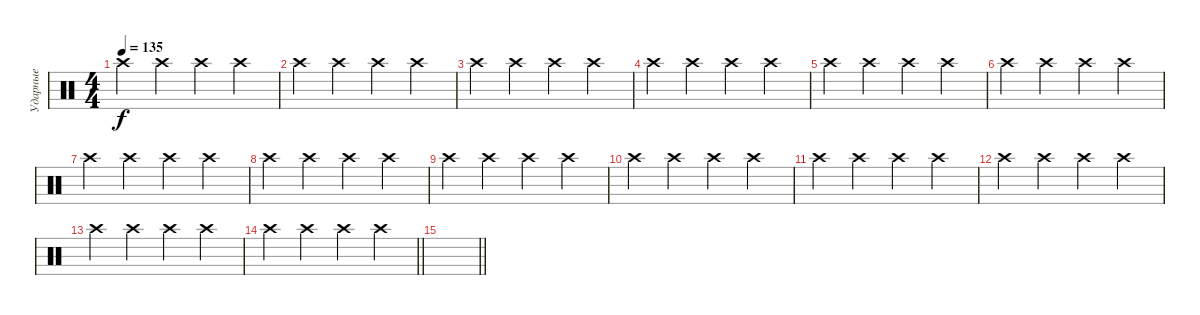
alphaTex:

\track ("Ударные" "Ударные") {instrument percussion}
\staff {score}
\articulation defaults
\ts (4 4)
\tempo 135
\clef neutral
\ks c "Crash high (hit)".4{dy f} "Crash high (hit)".4 "Crash high (hit)".4 "Crash high (hit)".4
|
"Crash high (hit)".4 "Crash high (hit)".4 "Crash high (hit)".4 "Crash high (hit)".4 |
"Crash high (hit)".4 "Crash high (hit)".4 "Crash high (hit)".4 "Crash high (hit)".4 |
"Crash high (hit)".4 "Crash high (hit)".4 "Crash high (hit)".4 "Crash high (hit)".4 |
"Crash high (hit)".4 "Crash high (hit)".4 "Crash high (hit)".4 "Crash high (hit)".4 |
"Crash high (hit)".4 "Crash high (hit)".4 "Crash high (hit)".4 "Crash high (hit)".4 |
"Crash high (hit)".4 "Crash high (hit)".4 "Crash high (hit)".4 "Crash high (hit)".4 |
"Crash high (hit)".4 "Crash high (hit)".4 "Crash high (hit)".4 "Crash high (hit)".4 |
"Crash high (hit)".4 "Crash high (hit)".4 "Crash high (hit)".4 "Crash high (hit)".4 |
"Crash high (hit)".4 "Crash high (hit)".4 "Crash high (hit)".4 "Crash high (hit)".4 |
"Crash high (hit)".4 "Crash high (hit)".4 "Crash high (hit)".4 "Crash high (hit)".4 |
"Crash high (hit)".4 "Crash high (hit)".4 "Crash high (hit)".4 "Crash high (hit)".4 |
"Crash high (hit)".4 "Crash high (hit)".4 "Crash high (hit)".4 "Crash high (hit)".4 |
\barLineRight lightlight "Crash high (hit)".4 "Crash high (hit)".4 "Crash high (hit)".4 "Crash high (hit)".4
|
\barLineRight lightlight
